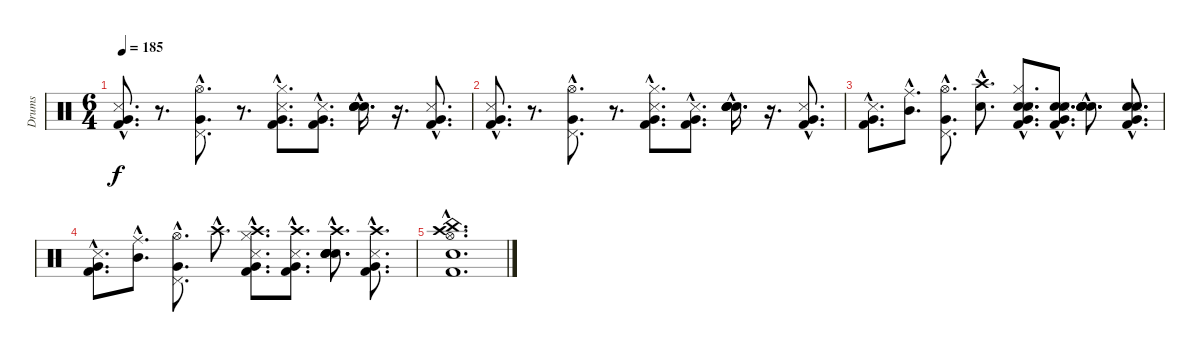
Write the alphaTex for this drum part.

\track ("Drums" "Drums") {instrument percussion}
\staff {score}
\articulation defaults
\ts (6 4)
\tempo 185
\clef neutral
\ks c
("Very Low Tom (hit)"{hac} "Metronome (hit)"{hac} "Kick (hit) 2"{hac}).8{d dy f} r.8{d} ("Very Low Tom (hit)"{hac} "Pedal Hi-Hat (hit)"{hac} "Hi-Hat (open)"{hac}).8{d} r.8{d} ("Hi-Hat (closed)"{hac} "Very Low Tom (hit)"{hac} "Metronome (hit)"{hac} "Kick (hit) 2"{hac}).8{d} ("Very Low Tom (hit)"{hac} "Metronome (hit)"{hac} "Kick (hit) 2"{hac}).8{d} ("Snare (hit) 2"{hac} "Snare (hit) 2"{hac} "Snare (hit) 2"{hac} "Snare (hit) 2"{hac}).16{d} r.16{d} ("Very Low Tom (hit)"{hac} "Metronome (hit)"{hac} "Kick (hit) 2"{hac}).8{d} |
("Very Low Tom (hit)"{hac} "Metronome (hit)"{hac} "Kick (hit) 2"{hac}).8{d} r.8{d} ("Very Low Tom (hit)"{hac} "Pedal Hi-Hat (hit)"{hac} "Hi-Hat (open)"{hac}).8{d} r.8{d} ("Hi-Hat (closed)"{hac} "Very Low Tom (hit)"{hac} "Metronome (hit)"{hac} "Kick (hit) 2"{hac}).8{d} ("Very Low Tom (hit)"{hac} "Metronome (hit)"{hac} "Kick (hit) 2"{hac}).8{d} ("Snare (hit) 2"{hac} "Snare (hit) 2"{hac} "Snare (hit) 2"{hac} "Snare (hit) 2"{hac}).16{d} r.16{d} ("Very Low Tom (hit)"{hac} "Metronome (hit)"{hac} "Kick (hit) 2"{hac}).8{d} |
("Very Low Tom (hit)"{hac} "Metronome (hit)"{hac} "Kick (hit) 2"{hac}).8{d} ("Mid Tom (hit)"{hac} "Ride (middle)"{hac}).8{d} ("Very Low Tom (hit)"{hac} "Pedal Hi-Hat (hit)"{hac} "Hi-Hat (open)"{hac}).8{d} ("Snare (hit) 2"{hac} "Crash high (hit)"{hac}).8{d} ("Snare (hit) 2"{hac} "Hi-Hat (closed)"{hac} "Very Low Tom (hit)"{hac} "Metronome (hit)"{hac} "Kick (hit) 2"{hac} "Electric Snare (hit)"{hac}).8{d} ("Snare (hit) 2"{hac} "Electric Snare (hit)"{hac} "Very Low Tom (hit)"{hac} "Metronome (hit)"{hac} "Kick (hit) 2"{hac}).8{d} ("Snare (hit) 2"{hac} "Electric Snare (hit)"{hac} "Snare (hit) 2"{hac} "Snare (hit) 2"{hac} "Snare (hit) 2"{hac}).8{d} ("Snare (hit) 2"{hac} "Snare (hit) 2"{hac} "Very Low Tom (hit)"{hac} "Metronome (hit)"{hac} "Kick (hit) 2"{hac}).8{d} |
("Very Low Tom (hit)"{hac} "Metronome (hit)"{hac} "Kick (hit) 2"{hac}).8{d} ("Mid Tom (hit)"{hac} "Ride (middle)"{hac}).8{d} ("Very Low Tom (hit)"{hac} "Pedal Hi-Hat (hit)"{hac} "Hi-Hat (open)"{hac}).8{d} "Crash high (hit)"{hac}.8{d} ("Crash high (hit)"{hac} "Hi-Hat (closed)"{hac} "Very Low Tom (hit)"{hac} "Metronome (hit)"{hac} "Kick (hit) 2"{hac}).8{d} ("Crash high (hit)"{hac} "Very Low Tom (hit)"{hac} "Metronome (hit)"{hac} "Kick (hit) 2"{hac}).8{d} ("Snare (hit) 2"{hac} "Crash high (hit)"{hac} "Snare (hit) 2"{hac} "Snare (hit) 2"{hac} "Snare (hit) 2"{hac}).8{d} ("Crash high (hit)"{hac} "Very Low Tom (hit)"{hac} "Metronome (hit)"{hac} "Kick (hit) 2"{hac}).8{d} |
("Kick (hit) 2"{hac} "Snare (hit) 2"{hac} "China (hit)"{hac} "Hi-Hat (open)"{hac} "Crash high (hit)"{hac}).1{d}
